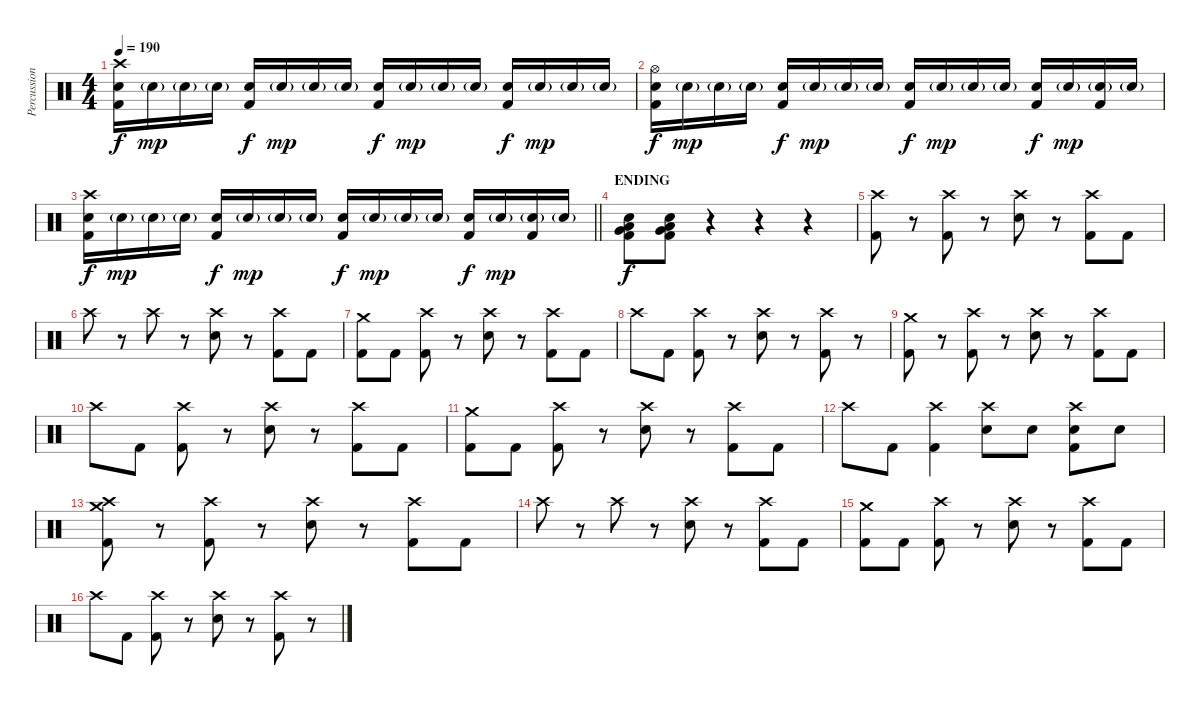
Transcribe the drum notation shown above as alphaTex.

\track ("Percussion" "Percussion") {instrument percussion}
\staff {score}
\articulation defaults
\ts (4 4)
\tempo 190
\clef neutral
\ks c
("Crash high (hit)" "Electric Snare (hit)" "Kick (hit) 2").16{dy f} "Electric Snare (hit)"{g}.16{dy mp} "Electric Snare (hit)"{g}.16 "Electric Snare (hit)"{g}.16 ("Electric Snare (hit)" "Kick (hit) 2").16{dy f} "Electric Snare (hit)"{g}.16{dy mp} "Electric Snare (hit)"{g}.16 "Electric Snare (hit)"{g}.16 ("Electric Snare (hit)" "Kick (hit) 2").16{dy f} "Electric Snare (hit)"{g}.16{dy mp} "Electric Snare (hit)"{g}.16 "Electric Snare (hit)"{g}.16 ("Electric Snare (hit)" "Kick (hit) 2").16{dy f} "Electric Snare (hit)"{g}.16{dy mp} "Electric Snare (hit)"{g}.16 "Electric Snare (hit)"{g}.16 |
("Hi-Hat (open)" "Electric Snare (hit)" "Kick (hit) 2").16{dy f} "Electric Snare (hit)"{g}.16{dy mp} "Electric Snare (hit)"{g}.16 "Electric Snare (hit)"{g}.16 ("Electric Snare (hit)" "Kick (hit) 2").16{dy f} "Electric Snare (hit)"{g}.16{dy mp} "Electric Snare (hit)"{g}.16 "Electric Snare (hit)"{g}.16 ("Electric Snare (hit)" "Kick (hit) 2").16{dy f} "Electric Snare (hit)"{g}.16{dy mp} "Electric Snare (hit)"{g}.16 "Electric Snare (hit)"{g}.16 ("Electric Snare (hit)" "Kick (hit) 2").16{dy f} "Electric Snare (hit)"{g}.16{dy mp} ("Electric Snare (hit)"{g} "Kick (hit) 2").16 "Electric Snare (hit)"{g}.16 |
\barLineRight lightlight
("Crash high (hit)" "Electric Snare (hit)" "Kick (hit) 2").16{dy f} "Electric Snare (hit)"{g}.16{dy mp} "Electric Snare (hit)"{g}.16 "Electric Snare (hit)"{g}.16 ("Electric Snare (hit)" "Kick (hit) 2").16{dy f} "Electric Snare (hit)"{g}.16{dy mp} "Electric Snare (hit)"{g}.16 "Electric Snare (hit)"{g}.16 ("Electric Snare (hit)" "Kick (hit) 2").16{dy f} "Electric Snare (hit)"{g}.16{dy mp} "Electric Snare (hit)"{g}.16 "Electric Snare (hit)"{g}.16 ("Electric Snare (hit)" "Kick (hit) 2").16{dy f} "Electric Snare (hit)"{g}.16{dy mp} ("Electric Snare (hit)"{g} "Kick (hit) 2").16 "Electric Snare (hit)"{g}.16 |
\section ("" "ENDING")
("Very Low Tom (hit)" "Low Floor Tom (hit)" "Electric Snare (hit)" "Kick (hit) 2").8{dy f} ("Very Low Tom (hit)" "Low Floor Tom (hit)" "Electric Snare (hit)" "Kick (hit) 2").8 r.4 r.4 r.4 |
("Crash high (hit)" "Kick (hit) 2").8 r.8 ("Crash high (hit)" "Kick (hit) 2").8 r.8 ("Crash high (hit)" "Electric Snare (hit)").8 r.8 ("Crash high (hit)" "Kick (hit) 2").8 "Kick (hit) 2".8 |
"Crash high (hit)".8 r.8 "Crash high (hit)".8 r.8 ("Crash high (hit)" "Electric Snare (hit)").8 r.8 ("Crash high (hit)" "Kick (hit) 2").8 "Kick (hit) 2".8 |
("Crash medium (hit)" "Kick (hit) 2").8 "Kick (hit) 2".8 ("Crash high (hit)" "Kick (hit) 2").8 r.8 ("Crash high (hit)" "Electric Snare (hit)").8 r.8 ("Crash high (hit)" "Kick (hit) 2").8 "Kick (hit) 2".8 |
"Crash high (hit)".8 "Kick (hit) 2".8 ("Crash high (hit)" "Kick (hit) 2").8 r.8 ("Crash high (hit)" "Electric Snare (hit)").8 r.8 ("Crash high (hit)" "Kick (hit) 2").8 r.8 |
("Crash medium (hit)" "Kick (hit) 2").8 r.8 ("Crash high (hit)" "Kick (hit) 2").8 r.8 ("Crash high (hit)" "Electric Snare (hit)").8 r.8 ("Crash high (hit)" "Kick (hit) 2").8 "Kick (hit) 2".8 |
"Crash high (hit)".8 "Kick (hit) 2".8 ("Crash high (hit)" "Kick (hit) 2").8 r.8 ("Crash high (hit)" "Electric Snare (hit)").8 r.8 ("Crash high (hit)" "Kick (hit) 2").8 "Kick (hit) 2".8 |
("Crash medium (hit)" "Kick (hit) 2").8 "Kick (hit) 2".8 ("Crash high (hit)" "Kick (hit) 2").8 r.8 ("Crash high (hit)" "Electric Snare (hit)").8 r.8 ("Crash high (hit)" "Kick (hit) 2").8 "Kick (hit) 2".8 |
"Crash high (hit)".8 "Kick (hit) 2".8 ("Crash high (hit)" "Kick (hit) 2").4 ("Crash high (hit)" "Electric Snare (hit)").8 "Electric Snare (hit)".8 ("Crash high (hit)" "Electric Snare (hit)" "Kick (hit) 2").8 "Electric Snare (hit)".8 |
("Crash high (hit)" "Crash medium (hit)" "Kick (hit) 2").8 r.8 ("Crash high (hit)" "Kick (hit) 2").8 r.8 ("Crash high (hit)" "Electric Snare (hit)").8 r.8 ("Crash high (hit)" "Kick (hit) 2").8 "Kick (hit) 2".8 |
"Crash high (hit)".8 r.8 "Crash high (hit)".8 r.8 ("Crash high (hit)" "Electric Snare (hit)").8 r.8 ("Crash high (hit)" "Kick (hit) 2").8 "Kick (hit) 2".8 |
("Crash medium (hit)" "Kick (hit) 2").8 "Kick (hit) 2".8 ("Crash high (hit)" "Kick (hit) 2").8 r.8 ("Crash high (hit)" "Electric Snare (hit)").8 r.8 ("Crash high (hit)" "Kick (hit) 2").8 "Kick (hit) 2".8 |
"Crash high (hit)".8 "Kick (hit) 2".8 ("Crash high (hit)" "Kick (hit) 2").8 r.8 ("Crash high (hit)" "Electric Snare (hit)").8 r.8 ("Crash high (hit)" "Kick (hit) 2").8 r.8
